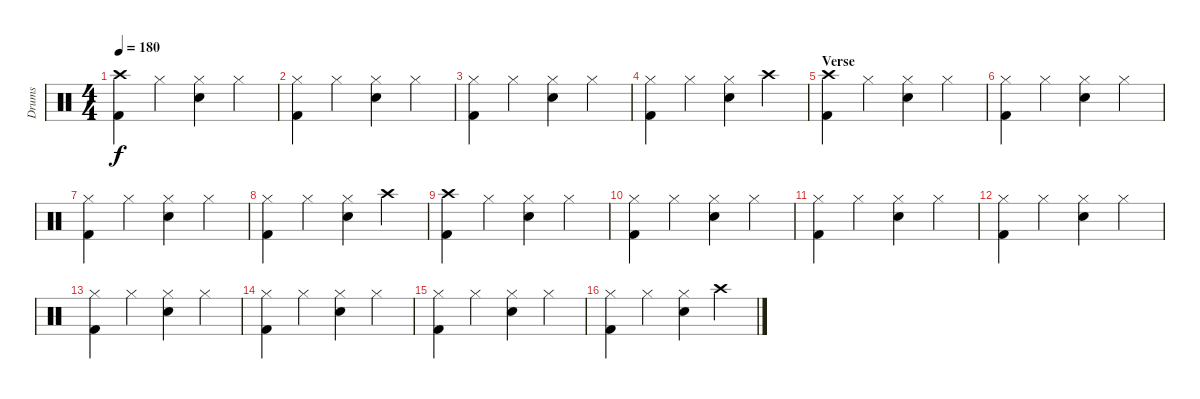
\track ("Drums" "Drums") {instrument percussion}
\staff {score}
\articulation defaults
\ts (4 4)
\tempo 180
\clef neutral
\ks c
("Crash high (hit)" "Kick (hit) 2").4{dy f} "Hi-Hat (closed)".4 ("Hi-Hat (closed)" "Snare (hit) 2").4 "Hi-Hat (closed)".4 |
("Hi-Hat (closed)" "Kick (hit) 2").4 "Hi-Hat (closed)".4 ("Hi-Hat (closed)" "Snare (hit) 2").4 "Hi-Hat (closed)".4 |
("Hi-Hat (closed)" "Kick (hit) 2").4 "Hi-Hat (closed)".4 ("Hi-Hat (closed)" "Snare (hit) 2").4 "Hi-Hat (closed)".4 |
("Hi-Hat (closed)" "Kick (hit) 2").4 "Hi-Hat (closed)".4 ("Hi-Hat (closed)" "Snare (hit) 2").4 "Crash high (hit)".4 |
\section ("" "Verse")
("Crash high (hit)" "Kick (hit) 2").4 "Hi-Hat (closed)".4 ("Hi-Hat (closed)" "Snare (hit) 2").4 "Hi-Hat (closed)".4 |
("Hi-Hat (closed)" "Kick (hit) 2").4 "Hi-Hat (closed)".4 ("Hi-Hat (closed)" "Snare (hit) 2").4 "Hi-Hat (closed)".4 |
("Hi-Hat (closed)" "Kick (hit) 2").4 "Hi-Hat (closed)".4 ("Hi-Hat (closed)" "Snare (hit) 2").4 "Hi-Hat (closed)".4 |
("Hi-Hat (closed)" "Kick (hit) 2").4 "Hi-Hat (closed)".4 ("Hi-Hat (closed)" "Snare (hit) 2").4 "Crash high (hit)".4 |
("Crash high (hit)" "Kick (hit) 2").4 "Hi-Hat (closed)".4 ("Hi-Hat (closed)" "Snare (hit) 2").4 "Hi-Hat (closed)".4 |
("Hi-Hat (closed)" "Kick (hit) 2").4 "Hi-Hat (closed)".4 ("Hi-Hat (closed)" "Snare (hit) 2").4 "Hi-Hat (closed)".4 |
("Hi-Hat (closed)" "Kick (hit) 2").4 "Hi-Hat (closed)".4 ("Hi-Hat (closed)" "Snare (hit) 2").4 "Hi-Hat (closed)".4 |
("Hi-Hat (closed)" "Kick (hit) 2").4 "Hi-Hat (closed)".4 ("Hi-Hat (closed)" "Snare (hit) 2").4 "Hi-Hat (closed)".4 |
("Hi-Hat (closed)" "Kick (hit) 2").4 "Hi-Hat (closed)".4 ("Hi-Hat (closed)" "Snare (hit) 2").4 "Hi-Hat (closed)".4 |
("Hi-Hat (closed)" "Kick (hit) 2").4 "Hi-Hat (closed)".4 ("Hi-Hat (closed)" "Snare (hit) 2").4 "Hi-Hat (closed)".4 |
("Hi-Hat (closed)" "Kick (hit) 2").4 "Hi-Hat (closed)".4 ("Hi-Hat (closed)" "Snare (hit) 2").4 "Hi-Hat (closed)".4 |
("Hi-Hat (closed)" "Kick (hit) 2").4 "Hi-Hat (closed)".4 ("Hi-Hat (closed)" "Snare (hit) 2").4 "Crash high (hit)".4
